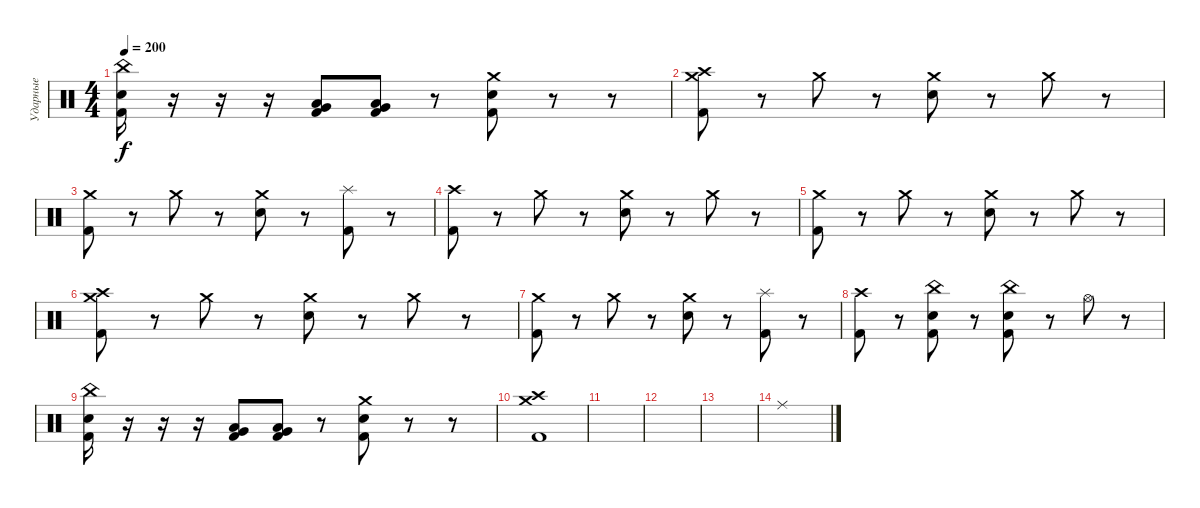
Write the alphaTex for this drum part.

\track ("Ударные" "Ударные") {instrument percussion}
\staff {score}
\articulation defaults
\ts (4 4)
\tempo 200
\clef neutral
\ks c
("Kick (hit) 2" "Electric Snare (hit)" "China (hit)").16{dy f} r.16 r.16 r.16 ("Kick (hit) 2" "Low Floor Tom (hit)" "Very Low Tom (hit)").8 ("Kick (hit) 2" "Low Floor Tom (hit)" "Very Low Tom (hit)").8 r.8 ("Kick (hit) 2" "Electric Snare (hit)" "Crash medium (hit)").8 r.8 r.8 |
("Kick (hit) 2" "Crash high (hit)" "Crash medium (hit)").8 r.8 "Crash medium (hit)".8 r.8 ("Electric Snare (hit)" "Crash medium (hit)").8 r.8 "Crash medium (hit)".8 r.8 |
("Kick (hit) 2" "Crash medium (hit)").8 r.8 "Crash medium (hit)".8 r.8 ("Electric Snare (hit)" "Crash medium (hit)").8 r.8 ("Kick (hit) 2" "Splash (hit)").8 r.8 |
("Kick (hit) 2" "Crash high (hit)").8 r.8 "Crash medium (hit)".8 r.8 ("Electric Snare (hit)" "Crash medium (hit)").8 r.8 "Crash medium (hit)".8 r.8 |
("Kick (hit) 2" "Crash medium (hit)").8 r.8 "Crash medium (hit)".8 r.8 ("Electric Snare (hit)" "Crash medium (hit)").8 r.8 "Crash medium (hit)".8 r.8 |
("Kick (hit) 2" "Crash high (hit)" "Crash medium (hit)").8 r.8 "Crash medium (hit)".8 r.8 ("Electric Snare (hit)" "Crash medium (hit)").8 r.8 "Crash medium (hit)".8 r.8 |
("Kick (hit) 2" "Crash medium (hit)").8 r.8 "Crash medium (hit)".8 r.8 ("Electric Snare (hit)" "Crash medium (hit)").8 r.8 ("Kick (hit) 2" "Splash (hit)").8 r.8 |
("Kick (hit) 2" "Crash high (hit)").8 r.8 ("Kick (hit) 2" "Electric Snare (hit)" "China (hit)").8 r.8 ("Kick (hit) 2" "Electric Snare (hit)" "China (hit)").8 r.8 "Hi-Hat (open)".8 r.8 |
("Kick (hit) 2" "Electric Snare (hit)" "China (hit)").16 r.16 r.16 r.16 ("Kick (hit) 2" "Low Floor Tom (hit)" "Very Low Tom (hit)").8 ("Kick (hit) 2" "Low Floor Tom (hit)" "Very Low Tom (hit)").8 r.8 ("Kick (hit) 2" "Electric Snare (hit)" "Crash medium (hit)").8 r.8 r.8 |
("Kick (hit) 2" "Crash high (hit)" "Crash medium (hit)").1 |
|
|
|
"Ride (middle)".1
